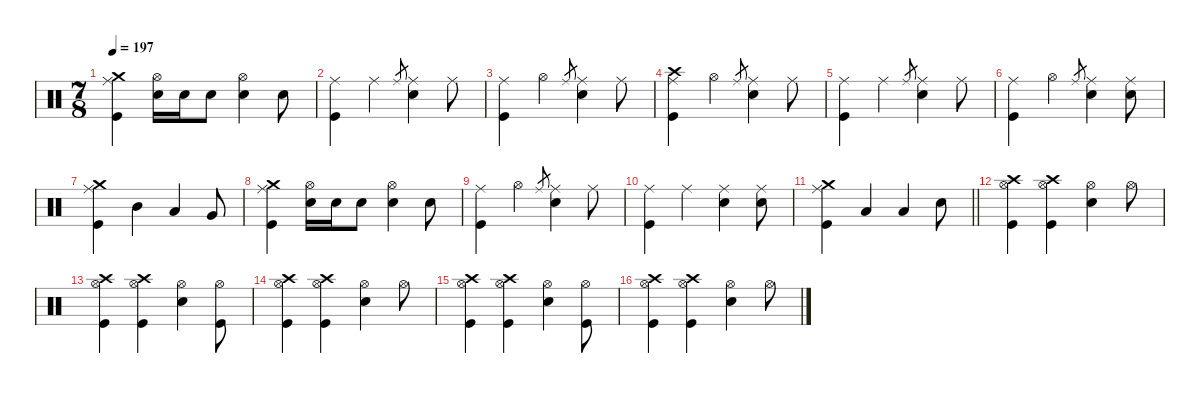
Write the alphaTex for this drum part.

\defaultSystemsLayout 4
\hideDynamics
\bracketExtendMode nobrackets
\singleTrackTrackNamePolicy hidden
\multiTrackTrackNamePolicy hidden
\firstSystemTrackNameMode fullname
\firstSystemTrackNameOrientation horizontal
\otherSystemsTrackNameOrientation horizontal
\track ("Drums" "drm.") {defaultSystemsLayout 4 instrument percussion}
\staff {score}
\articulation defaults
\ts (7 8)
\tempo 197
\clef neutral
\ks c
("Crash medium (hit)" "Ride (middle)" "Kick (hit)").4{dy mp beam Down} ("Hi-Hat (open)" "Snare (hit) 2").16{dy f beam Down} "Snare (hit) 2".16{dy mp beam Down} "Snare (hit) 2".8{dy mf beam Down} ("Hi-Hat (open)" "Snare (hit) 2").4{dy f beam Down} "Snare (hit) 2".8{beam Down} |
("Ride (middle)" "Kick (hit)").4{beam Down} "Ride (middle)".4{beam Down} "Ride (middle)".8{gr dy mf beam Up} ("Ride (middle)" "Snare (hit) 2").4{dy f beam Down} "Ride (middle)".8{beam Down} |
("Ride (middle)" "Kick (hit)").4{beam Down} "Hi-Hat (open)".4{beam Down} "Ride (middle)".8{gr dy mf beam Up} ("Ride (middle)" "Snare (hit) 2").4{dy f beam Down} "Ride (middle)".8{beam Down} |
("Crash high (hit)" "Ride (middle)" "Kick (hit)").4{dy mf beam Down} "Hi-Hat (open)".4{dy f beam Down} "Ride (middle)".8{gr dy mf beam Up} ("Ride (middle)" "Snare (hit) 2").4{dy f beam Down} "Ride (middle)".8{beam Down} |
("Ride (middle)" "Kick (hit)").4{beam Down} "Ride (middle)".4{beam Down} "Ride (middle)".8{gr dy mf beam Up} ("Ride (middle)" "Snare (hit) 2").4{dy f beam Down} "Ride (middle)".8{beam Down} |
("Ride (middle)" "Kick (hit)").4{beam Down} "Hi-Hat (open)".4{beam Down} "Ride (middle)".8{gr dy mf beam Up} ("Ride (middle)" "Snare (hit) 2").4{dy f beam Down} ("Ride (middle)" "Snare (hit) 2").8{beam Down} |
("Crash medium (hit)" "Ride (middle)" "Kick (hit)").4{dy mp beam Down} "Mid Tom (hit)".4{dy f beam Down} "Low Tom (hit)".4{beam Up} "Very Low Tom (hit)".8{beam Up} |
("Crash medium (hit)" "Ride (middle)" "Kick (hit)").4{dy mp beam Down} ("Hi-Hat (open)" "Snare (hit) 2").16{dy f beam Down} "Snare (hit) 2".16{dy mp beam Down} "Snare (hit) 2".8{dy mf beam Down} ("Hi-Hat (open)" "Snare (hit) 2").4{dy f beam Down} "Snare (hit) 2".8{beam Down} |
("Ride (middle)" "Kick (hit)").4{beam Down} "Hi-Hat (open)".4{beam Down} "Ride (middle)".8{gr dy mf beam Up} ("Ride (middle)" "Snare (hit) 2").4{dy f beam Down} "Ride (middle)".8{beam Down} |
("Ride (middle)" "Kick (hit)").4{beam Down} "Ride (middle)".4{beam Down} ("Ride (middle)" "Snare (hit) 2").4{beam Down} ("Ride (middle)" "Snare (hit) 2").8{beam Down} |
\barLineRight lightlight
("Crash medium (hit)" "Ride (middle)" "Kick (hit)").4{dy mp beam Down} "Low Tom (hit)".4{dy f beam Up} "Low Floor Tom (hit)".4{dy pp beam Up} "Snare (hit) 2".8{dy f beam Down} |
("Hi-Hat (open)" "Crash high (hit)" "Kick (hit)").4{beam Down} ("Hi-Hat (open)" "Crash high (hit)" "Kick (hit)").4{beam Down} ("Hi-Hat (open)" "Snare (hit) 2").4{beam Down} "Hi-Hat (open)".8{beam Down} |
("Hi-Hat (open)" "Crash high (hit)" "Kick (hit)").4{beam Down} ("Hi-Hat (open)" "Crash high (hit)" "Kick (hit)").4{beam Down} ("Hi-Hat (open)" "Snare (hit) 2").4{beam Down} ("Hi-Hat (open)" "Kick (hit)").8{beam Down} |
("Hi-Hat (open)" "Crash high (hit)" "Kick (hit)").4{beam Down} ("Hi-Hat (open)" "Crash high (hit)" "Kick (hit)").4{beam Down} ("Hi-Hat (open)" "Snare (hit) 2").4{beam Down} "Hi-Hat (open)".8{beam Down} |
("Hi-Hat (open)" "Crash high (hit)" "Kick (hit)").4{beam Down} ("Hi-Hat (open)" "Crash high (hit)" "Kick (hit)").4{beam Down} ("Hi-Hat (open)" "Snare (hit) 2").4{beam Down} ("Hi-Hat (open)" "Kick (hit)").8{beam Down} |
("Hi-Hat (open)" "Crash high (hit)" "Kick (hit)").4{beam Down} ("Hi-Hat (open)" "Crash high (hit)" "Kick (hit)").4{beam Down} ("Hi-Hat (open)" "Snare (hit) 2").4{beam Down} "Hi-Hat (open)".8{beam Down}
